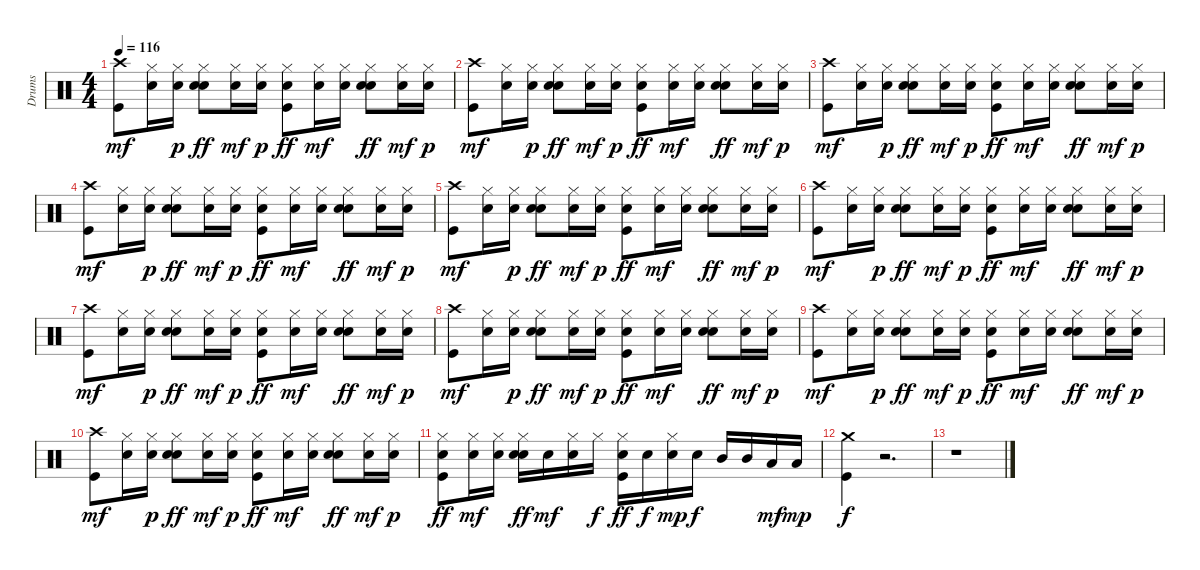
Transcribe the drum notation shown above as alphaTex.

\track ("Drums" "Drums") {instrument percussion}
\staff {score}
\articulation defaults
\ts (4 4)
\tempo 116
\clef neutral
\ks c
("Kick (hit)" "Crash high (hit)").8{dy mf} ("Snare (hit) 2" "Hi-Hat (closed)").16 ("Snare (hit) 2" "Hi-Hat (closed)").16{dy p} ("Snare (hit) 2" "Electric Snare (hit)" "Hi-Hat (closed)").8{dy ff} ("Snare (hit) 2" "Hi-Hat (closed)").16{dy mf} ("Snare (hit) 2" "Hi-Hat (closed)").16{dy p} ("Kick (hit)" "Snare (hit) 2" "Hi-Hat (closed)").8{dy ff} ("Snare (hit) 2" "Hi-Hat (closed)").16{dy mf} ("Snare (hit) 2" "Hi-Hat (closed)").16 ("Snare (hit) 2" "Electric Snare (hit)" "Hi-Hat (closed)").8{dy ff} ("Snare (hit) 2" "Hi-Hat (closed)").16{dy mf} ("Snare (hit) 2" "Hi-Hat (closed)").16{dy p} |
("Kick (hit)" "Crash high (hit)").8{dy mf} ("Snare (hit) 2" "Hi-Hat (closed)").16 ("Snare (hit) 2" "Hi-Hat (closed)").16{dy p} ("Snare (hit) 2" "Electric Snare (hit)" "Hi-Hat (closed)").8{dy ff} ("Snare (hit) 2" "Hi-Hat (closed)").16{dy mf} ("Snare (hit) 2" "Hi-Hat (closed)").16{dy p} ("Kick (hit)" "Snare (hit) 2" "Hi-Hat (closed)").8{dy ff} ("Snare (hit) 2" "Hi-Hat (closed)").16{dy mf} ("Snare (hit) 2" "Hi-Hat (closed)").16 ("Snare (hit) 2" "Electric Snare (hit)" "Hi-Hat (closed)").8{dy ff} ("Snare (hit) 2" "Hi-Hat (closed)").16{dy mf} ("Snare (hit) 2" "Hi-Hat (closed)").16{dy p} |
("Kick (hit)" "Crash high (hit)").8{dy mf} ("Snare (hit) 2" "Hi-Hat (closed)").16 ("Snare (hit) 2" "Hi-Hat (closed)").16{dy p} ("Snare (hit) 2" "Electric Snare (hit)" "Hi-Hat (closed)").8{dy ff} ("Snare (hit) 2" "Hi-Hat (closed)").16{dy mf} ("Snare (hit) 2" "Hi-Hat (closed)").16{dy p} ("Kick (hit)" "Snare (hit) 2" "Hi-Hat (closed)").8{dy ff} ("Snare (hit) 2" "Hi-Hat (closed)").16{dy mf} ("Snare (hit) 2" "Hi-Hat (closed)").16 ("Snare (hit) 2" "Electric Snare (hit)" "Hi-Hat (closed)").8{dy ff} ("Snare (hit) 2" "Hi-Hat (closed)").16{dy mf} ("Snare (hit) 2" "Hi-Hat (closed)").16{dy p} |
("Kick (hit)" "Crash high (hit)").8{dy mf} ("Snare (hit) 2" "Hi-Hat (closed)").16 ("Snare (hit) 2" "Hi-Hat (closed)").16{dy p} ("Snare (hit) 2" "Electric Snare (hit)" "Hi-Hat (closed)").8{dy ff} ("Snare (hit) 2" "Hi-Hat (closed)").16{dy mf} ("Snare (hit) 2" "Hi-Hat (closed)").16{dy p} ("Kick (hit)" "Snare (hit) 2" "Hi-Hat (closed)").8{dy ff} ("Snare (hit) 2" "Hi-Hat (closed)").16{dy mf} ("Snare (hit) 2" "Hi-Hat (closed)").16 ("Snare (hit) 2" "Electric Snare (hit)" "Hi-Hat (closed)").8{dy ff} ("Snare (hit) 2" "Hi-Hat (closed)").16{dy mf} ("Snare (hit) 2" "Hi-Hat (closed)").16{dy p} |
("Kick (hit)" "Crash high (hit)").8{dy mf} ("Snare (hit) 2" "Hi-Hat (closed)").16 ("Snare (hit) 2" "Hi-Hat (closed)").16{dy p} ("Snare (hit) 2" "Electric Snare (hit)" "Hi-Hat (closed)").8{dy ff} ("Snare (hit) 2" "Hi-Hat (closed)").16{dy mf} ("Snare (hit) 2" "Hi-Hat (closed)").16{dy p} ("Kick (hit)" "Snare (hit) 2" "Hi-Hat (closed)").8{dy ff} ("Snare (hit) 2" "Hi-Hat (closed)").16{dy mf} ("Snare (hit) 2" "Hi-Hat (closed)").16 ("Snare (hit) 2" "Electric Snare (hit)" "Hi-Hat (closed)").8{dy ff} ("Snare (hit) 2" "Hi-Hat (closed)").16{dy mf} ("Snare (hit) 2" "Hi-Hat (closed)").16{dy p} |
("Kick (hit)" "Crash high (hit)").8{dy mf} ("Snare (hit) 2" "Hi-Hat (closed)").16 ("Snare (hit) 2" "Hi-Hat (closed)").16{dy p} ("Snare (hit) 2" "Electric Snare (hit)" "Hi-Hat (closed)").8{dy ff} ("Snare (hit) 2" "Hi-Hat (closed)").16{dy mf} ("Snare (hit) 2" "Hi-Hat (closed)").16{dy p} ("Kick (hit)" "Snare (hit) 2" "Hi-Hat (closed)").8{dy ff} ("Snare (hit) 2" "Hi-Hat (closed)").16{dy mf} ("Snare (hit) 2" "Hi-Hat (closed)").16 ("Snare (hit) 2" "Electric Snare (hit)" "Hi-Hat (closed)").8{dy ff} ("Snare (hit) 2" "Hi-Hat (closed)").16{dy mf} ("Snare (hit) 2" "Hi-Hat (closed)").16{dy p} |
("Kick (hit)" "Crash high (hit)").8{dy mf} ("Snare (hit) 2" "Hi-Hat (closed)").16 ("Snare (hit) 2" "Hi-Hat (closed)").16{dy p} ("Snare (hit) 2" "Electric Snare (hit)" "Hi-Hat (closed)").8{dy ff} ("Snare (hit) 2" "Hi-Hat (closed)").16{dy mf} ("Snare (hit) 2" "Hi-Hat (closed)").16{dy p} ("Kick (hit)" "Snare (hit) 2" "Hi-Hat (closed)").8{dy ff} ("Snare (hit) 2" "Hi-Hat (closed)").16{dy mf} ("Snare (hit) 2" "Hi-Hat (closed)").16 ("Snare (hit) 2" "Electric Snare (hit)" "Hi-Hat (closed)").8{dy ff} ("Snare (hit) 2" "Hi-Hat (closed)").16{dy mf} ("Snare (hit) 2" "Hi-Hat (closed)").16{dy p} |
("Kick (hit)" "Crash high (hit)").8{dy mf} ("Snare (hit) 2" "Hi-Hat (closed)").16 ("Snare (hit) 2" "Hi-Hat (closed)").16{dy p} ("Snare (hit) 2" "Electric Snare (hit)" "Hi-Hat (closed)").8{dy ff} ("Snare (hit) 2" "Hi-Hat (closed)").16{dy mf} ("Snare (hit) 2" "Hi-Hat (closed)").16{dy p} ("Kick (hit)" "Snare (hit) 2" "Hi-Hat (closed)").8{dy ff} ("Snare (hit) 2" "Hi-Hat (closed)").16{dy mf} ("Snare (hit) 2" "Hi-Hat (closed)").16 ("Snare (hit) 2" "Electric Snare (hit)" "Hi-Hat (closed)").8{dy ff} ("Snare (hit) 2" "Hi-Hat (closed)").16{dy mf} ("Snare (hit) 2" "Hi-Hat (closed)").16{dy p} |
("Kick (hit)" "Crash high (hit)").8{dy mf} ("Snare (hit) 2" "Hi-Hat (closed)").16 ("Snare (hit) 2" "Hi-Hat (closed)").16{dy p} ("Snare (hit) 2" "Electric Snare (hit)" "Hi-Hat (closed)").8{dy ff} ("Snare (hit) 2" "Hi-Hat (closed)").16{dy mf} ("Snare (hit) 2" "Hi-Hat (closed)").16{dy p} ("Kick (hit)" "Snare (hit) 2" "Hi-Hat (closed)").8{dy ff} ("Snare (hit) 2" "Hi-Hat (closed)").16{dy mf} ("Snare (hit) 2" "Hi-Hat (closed)").16 ("Snare (hit) 2" "Electric Snare (hit)" "Hi-Hat (closed)").8{dy ff} ("Snare (hit) 2" "Hi-Hat (closed)").16{dy mf} ("Snare (hit) 2" "Hi-Hat (closed)").16{dy p} |
("Kick (hit)" "Crash high (hit)").8{dy mf} ("Snare (hit) 2" "Hi-Hat (closed)").16 ("Snare (hit) 2" "Hi-Hat (closed)").16{dy p} ("Snare (hit) 2" "Electric Snare (hit)" "Hi-Hat (closed)").8{dy ff} ("Snare (hit) 2" "Hi-Hat (closed)").16{dy mf} ("Snare (hit) 2" "Hi-Hat (closed)").16{dy p} ("Kick (hit)" "Snare (hit) 2" "Hi-Hat (closed)").8{dy ff} ("Snare (hit) 2" "Hi-Hat (closed)").16{dy mf} ("Snare (hit) 2" "Hi-Hat (closed)").16 ("Snare (hit) 2" "Electric Snare (hit)" "Hi-Hat (closed)").8{dy ff} ("Snare (hit) 2" "Hi-Hat (closed)").16{dy mf} ("Snare (hit) 2" "Hi-Hat (closed)").16{dy p} |
("Kick (hit)" "Snare (hit) 2" "Hi-Hat (closed)").8{dy ff} ("Snare (hit) 2" "Hi-Hat (closed)").16{dy mf} ("Snare (hit) 2" "Hi-Hat (closed)").16 ("Snare (hit) 2" "Electric Snare (hit)" "Hi-Hat (closed)").16{dy ff} "Snare (hit) 2".16{dy mf} ("Snare (hit) 2" "Hi-Hat (closed)").16 "Hi-Hat (closed)".16{dy f} ("Kick (hit)" "Snare (hit) 2" "Hi-Hat (closed)").16{dy ff} "Snare (hit) 2".16{dy f} ("Snare (hit) 2" "Hi-Hat (closed)").16{dy mp} "Snare (hit) 2".16{dy f} "Mid Tom (hit)".16 "Mid Tom (hit)".16 "Low Tom (hit)".16{dy mf} "Low Floor Tom (hit)".16{dy mp} |
("Kick (hit)" "Crash medium (hit)").4{dy f} r.2{d} |
r.1
